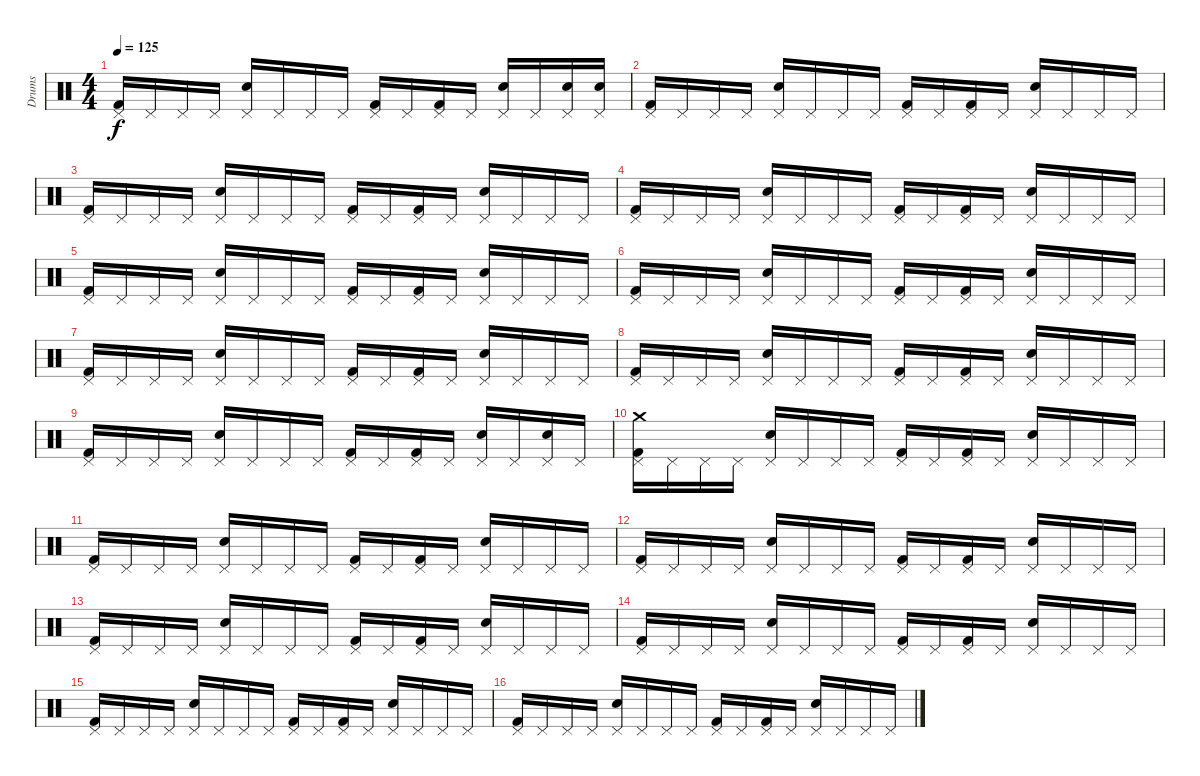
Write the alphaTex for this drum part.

\track ("Drums" "Drums") {instrument percussion}
\staff {score}
\articulation defaults
\ts (4 4)
\tempo 125
\clef neutral
\ks c
("Kick (hit) 2" "Pedal Hi-Hat (hit)").16{dy f} "Pedal Hi-Hat (hit)".16 "Pedal Hi-Hat (hit)".16 "Pedal Hi-Hat (hit)".16 ("Snare (hit) 2" "Pedal Hi-Hat (hit)").16 "Pedal Hi-Hat (hit)".16 "Pedal Hi-Hat (hit)".16 "Pedal Hi-Hat (hit)".16 ("Kick (hit) 2" "Pedal Hi-Hat (hit)").16 "Pedal Hi-Hat (hit)".16 ("Kick (hit) 2" "Pedal Hi-Hat (hit)").16 "Pedal Hi-Hat (hit)".16 ("Snare (hit) 2" "Pedal Hi-Hat (hit)").16 "Pedal Hi-Hat (hit)".16 ("Snare (hit) 2" "Pedal Hi-Hat (hit)").16 ("Snare (hit) 2" "Pedal Hi-Hat (hit)").16 |
("Pedal Hi-Hat (hit)" "Kick (hit) 2").16 "Pedal Hi-Hat (hit)".16 "Pedal Hi-Hat (hit)".16 "Pedal Hi-Hat (hit)".16 ("Pedal Hi-Hat (hit)" "Snare (hit) 2").16 "Pedal Hi-Hat (hit)".16 "Pedal Hi-Hat (hit)".16 "Pedal Hi-Hat (hit)".16 ("Pedal Hi-Hat (hit)" "Kick (hit) 2").16 "Pedal Hi-Hat (hit)".16 ("Pedal Hi-Hat (hit)" "Kick (hit) 2").16 "Pedal Hi-Hat (hit)".16 ("Pedal Hi-Hat (hit)" "Snare (hit) 2").16 "Pedal Hi-Hat (hit)".16 "Pedal Hi-Hat (hit)".16 "Pedal Hi-Hat (hit)".16 |
("Pedal Hi-Hat (hit)" "Kick (hit) 2").16 "Pedal Hi-Hat (hit)".16 "Pedal Hi-Hat (hit)".16 "Pedal Hi-Hat (hit)".16 ("Pedal Hi-Hat (hit)" "Snare (hit) 2").16 "Pedal Hi-Hat (hit)".16 "Pedal Hi-Hat (hit)".16 "Pedal Hi-Hat (hit)".16 ("Pedal Hi-Hat (hit)" "Kick (hit) 2").16 "Pedal Hi-Hat (hit)".16 ("Pedal Hi-Hat (hit)" "Kick (hit) 2").16 "Pedal Hi-Hat (hit)".16 ("Pedal Hi-Hat (hit)" "Snare (hit) 2").16 "Pedal Hi-Hat (hit)".16 "Pedal Hi-Hat (hit)".16 "Pedal Hi-Hat (hit)".16 |
("Pedal Hi-Hat (hit)" "Kick (hit) 2").16 "Pedal Hi-Hat (hit)".16 "Pedal Hi-Hat (hit)".16 "Pedal Hi-Hat (hit)".16 ("Pedal Hi-Hat (hit)" "Snare (hit) 2").16 "Pedal Hi-Hat (hit)".16 "Pedal Hi-Hat (hit)".16 "Pedal Hi-Hat (hit)".16 ("Pedal Hi-Hat (hit)" "Kick (hit) 2").16 "Pedal Hi-Hat (hit)".16 ("Pedal Hi-Hat (hit)" "Kick (hit) 2").16 "Pedal Hi-Hat (hit)".16 ("Pedal Hi-Hat (hit)" "Snare (hit) 2").16 "Pedal Hi-Hat (hit)".16 "Pedal Hi-Hat (hit)".16 "Pedal Hi-Hat (hit)".16 |
("Pedal Hi-Hat (hit)" "Kick (hit) 2").16 "Pedal Hi-Hat (hit)".16 "Pedal Hi-Hat (hit)".16 "Pedal Hi-Hat (hit)".16 ("Pedal Hi-Hat (hit)" "Snare (hit) 2").16 "Pedal Hi-Hat (hit)".16 "Pedal Hi-Hat (hit)".16 "Pedal Hi-Hat (hit)".16 ("Pedal Hi-Hat (hit)" "Kick (hit) 2").16 "Pedal Hi-Hat (hit)".16 ("Pedal Hi-Hat (hit)" "Kick (hit) 2").16 "Pedal Hi-Hat (hit)".16 ("Pedal Hi-Hat (hit)" "Snare (hit) 2").16 "Pedal Hi-Hat (hit)".16 "Pedal Hi-Hat (hit)".16 "Pedal Hi-Hat (hit)".16 |
("Pedal Hi-Hat (hit)" "Kick (hit) 2").16 "Pedal Hi-Hat (hit)".16 "Pedal Hi-Hat (hit)".16 "Pedal Hi-Hat (hit)".16 ("Pedal Hi-Hat (hit)" "Snare (hit) 2").16 "Pedal Hi-Hat (hit)".16 "Pedal Hi-Hat (hit)".16 "Pedal Hi-Hat (hit)".16 ("Pedal Hi-Hat (hit)" "Kick (hit) 2").16 "Pedal Hi-Hat (hit)".16 ("Pedal Hi-Hat (hit)" "Kick (hit) 2").16 "Pedal Hi-Hat (hit)".16 ("Pedal Hi-Hat (hit)" "Snare (hit) 2").16 "Pedal Hi-Hat (hit)".16 "Pedal Hi-Hat (hit)".16 "Pedal Hi-Hat (hit)".16 |
("Pedal Hi-Hat (hit)" "Kick (hit) 2").16 "Pedal Hi-Hat (hit)".16 "Pedal Hi-Hat (hit)".16 "Pedal Hi-Hat (hit)".16 ("Pedal Hi-Hat (hit)" "Snare (hit) 2").16 "Pedal Hi-Hat (hit)".16 "Pedal Hi-Hat (hit)".16 "Pedal Hi-Hat (hit)".16 ("Pedal Hi-Hat (hit)" "Kick (hit) 2").16 "Pedal Hi-Hat (hit)".16 ("Pedal Hi-Hat (hit)" "Kick (hit) 2").16 "Pedal Hi-Hat (hit)".16 ("Pedal Hi-Hat (hit)" "Snare (hit) 2").16 "Pedal Hi-Hat (hit)".16 "Pedal Hi-Hat (hit)".16 "Pedal Hi-Hat (hit)".16 |
("Pedal Hi-Hat (hit)" "Kick (hit) 2").16 "Pedal Hi-Hat (hit)".16 "Pedal Hi-Hat (hit)".16 "Pedal Hi-Hat (hit)".16 ("Pedal Hi-Hat (hit)" "Snare (hit) 2").16 "Pedal Hi-Hat (hit)".16 "Pedal Hi-Hat (hit)".16 "Pedal Hi-Hat (hit)".16 ("Pedal Hi-Hat (hit)" "Kick (hit) 2").16 "Pedal Hi-Hat (hit)".16 ("Pedal Hi-Hat (hit)" "Kick (hit) 2").16 "Pedal Hi-Hat (hit)".16 ("Pedal Hi-Hat (hit)" "Snare (hit) 2").16 "Pedal Hi-Hat (hit)".16 "Pedal Hi-Hat (hit)".16 "Pedal Hi-Hat (hit)".16 |
("Pedal Hi-Hat (hit)" "Kick (hit) 2").16 "Pedal Hi-Hat (hit)".16 "Pedal Hi-Hat (hit)".16 "Pedal Hi-Hat (hit)".16 ("Pedal Hi-Hat (hit)" "Snare (hit) 2").16 "Pedal Hi-Hat (hit)".16 "Pedal Hi-Hat (hit)".16 "Pedal Hi-Hat (hit)".16 ("Pedal Hi-Hat (hit)" "Kick (hit) 2").16 "Pedal Hi-Hat (hit)".16 ("Pedal Hi-Hat (hit)" "Kick (hit) 2").16 "Pedal Hi-Hat (hit)".16 ("Pedal Hi-Hat (hit)" "Snare (hit) 2").16 "Pedal Hi-Hat (hit)".16 ("Pedal Hi-Hat (hit)" "Snare (hit) 2").16 "Pedal Hi-Hat (hit)".16 |
("Crash medium (hit)" "Pedal Hi-Hat (hit)" "Kick (hit) 2").16 "Pedal Hi-Hat (hit)".16 "Pedal Hi-Hat (hit)".16 "Pedal Hi-Hat (hit)".16 ("Pedal Hi-Hat (hit)" "Snare (hit) 2").16 "Pedal Hi-Hat (hit)".16 "Pedal Hi-Hat (hit)".16 "Pedal Hi-Hat (hit)".16 ("Pedal Hi-Hat (hit)" "Kick (hit) 2").16 "Pedal Hi-Hat (hit)".16 ("Pedal Hi-Hat (hit)" "Kick (hit) 2").16 "Pedal Hi-Hat (hit)".16 ("Pedal Hi-Hat (hit)" "Snare (hit) 2").16 "Pedal Hi-Hat (hit)".16 "Pedal Hi-Hat (hit)".16 "Pedal Hi-Hat (hit)".16 |
("Pedal Hi-Hat (hit)" "Kick (hit) 2").16 "Pedal Hi-Hat (hit)".16 "Pedal Hi-Hat (hit)".16 "Pedal Hi-Hat (hit)".16 ("Pedal Hi-Hat (hit)" "Snare (hit) 2").16 "Pedal Hi-Hat (hit)".16 "Pedal Hi-Hat (hit)".16 "Pedal Hi-Hat (hit)".16 ("Pedal Hi-Hat (hit)" "Kick (hit) 2").16 "Pedal Hi-Hat (hit)".16 ("Pedal Hi-Hat (hit)" "Kick (hit) 2").16 "Pedal Hi-Hat (hit)".16 ("Pedal Hi-Hat (hit)" "Snare (hit) 2").16 "Pedal Hi-Hat (hit)".16 "Pedal Hi-Hat (hit)".16 "Pedal Hi-Hat (hit)".16 |
("Pedal Hi-Hat (hit)" "Kick (hit) 2").16 "Pedal Hi-Hat (hit)".16 "Pedal Hi-Hat (hit)".16 "Pedal Hi-Hat (hit)".16 ("Pedal Hi-Hat (hit)" "Snare (hit) 2").16 "Pedal Hi-Hat (hit)".16 "Pedal Hi-Hat (hit)".16 "Pedal Hi-Hat (hit)".16 ("Pedal Hi-Hat (hit)" "Kick (hit) 2").16 "Pedal Hi-Hat (hit)".16 ("Pedal Hi-Hat (hit)" "Kick (hit) 2").16 "Pedal Hi-Hat (hit)".16 ("Pedal Hi-Hat (hit)" "Snare (hit) 2").16 "Pedal Hi-Hat (hit)".16 "Pedal Hi-Hat (hit)".16 "Pedal Hi-Hat (hit)".16 |
("Kick (hit) 2" "Pedal Hi-Hat (hit)").16 "Pedal Hi-Hat (hit)".16 "Pedal Hi-Hat (hit)".16 "Pedal Hi-Hat (hit)".16 ("Snare (hit) 2" "Pedal Hi-Hat (hit)").16 "Pedal Hi-Hat (hit)".16 "Pedal Hi-Hat (hit)".16 "Pedal Hi-Hat (hit)".16 ("Kick (hit) 2" "Pedal Hi-Hat (hit)").16 "Pedal Hi-Hat (hit)".16 ("Kick (hit) 2" "Pedal Hi-Hat (hit)").16 "Pedal Hi-Hat (hit)".16 ("Snare (hit) 2" "Pedal Hi-Hat (hit)").16 "Pedal Hi-Hat (hit)".16 "Pedal Hi-Hat (hit)".16 "Pedal Hi-Hat (hit)".16 |
("Pedal Hi-Hat (hit)" "Kick (hit) 2").16 "Pedal Hi-Hat (hit)".16 "Pedal Hi-Hat (hit)".16 "Pedal Hi-Hat (hit)".16 ("Pedal Hi-Hat (hit)" "Snare (hit) 2").16 "Pedal Hi-Hat (hit)".16 "Pedal Hi-Hat (hit)".16 "Pedal Hi-Hat (hit)".16 ("Pedal Hi-Hat (hit)" "Kick (hit) 2").16 "Pedal Hi-Hat (hit)".16 ("Pedal Hi-Hat (hit)" "Kick (hit) 2").16 "Pedal Hi-Hat (hit)".16 ("Pedal Hi-Hat (hit)" "Snare (hit) 2").16 "Pedal Hi-Hat (hit)".16 "Pedal Hi-Hat (hit)".16 "Pedal Hi-Hat (hit)".16 |
("Kick (hit) 2" "Pedal Hi-Hat (hit)").16 "Pedal Hi-Hat (hit)".16 "Pedal Hi-Hat (hit)".16 "Pedal Hi-Hat (hit)".16 ("Snare (hit) 2" "Pedal Hi-Hat (hit)").16 "Pedal Hi-Hat (hit)".16 "Pedal Hi-Hat (hit)".16 "Pedal Hi-Hat (hit)".16 ("Kick (hit) 2" "Pedal Hi-Hat (hit)").16 "Pedal Hi-Hat (hit)".16 ("Kick (hit) 2" "Pedal Hi-Hat (hit)").16 "Pedal Hi-Hat (hit)".16 ("Snare (hit) 2" "Pedal Hi-Hat (hit)").16 "Pedal Hi-Hat (hit)".16 "Pedal Hi-Hat (hit)".16 "Pedal Hi-Hat (hit)".16 |
("Pedal Hi-Hat (hit)" "Kick (hit) 2").16 "Pedal Hi-Hat (hit)".16 "Pedal Hi-Hat (hit)".16 "Pedal Hi-Hat (hit)".16 ("Pedal Hi-Hat (hit)" "Snare (hit) 2").16 "Pedal Hi-Hat (hit)".16 "Pedal Hi-Hat (hit)".16 "Pedal Hi-Hat (hit)".16 ("Pedal Hi-Hat (hit)" "Kick (hit) 2").16 "Pedal Hi-Hat (hit)".16 ("Pedal Hi-Hat (hit)" "Kick (hit) 2").16 "Pedal Hi-Hat (hit)".16 ("Pedal Hi-Hat (hit)" "Snare (hit) 2").16 "Pedal Hi-Hat (hit)".16 "Pedal Hi-Hat (hit)".16 "Pedal Hi-Hat (hit)".16
